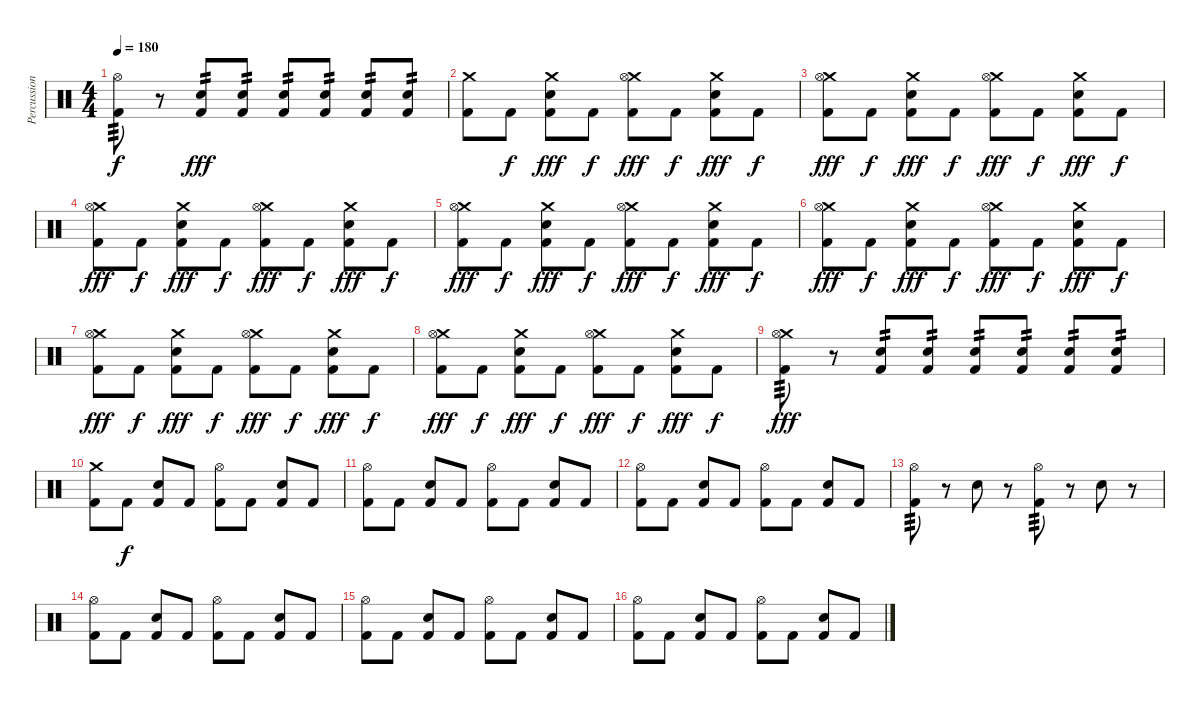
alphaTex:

\track ("Percussion" "Percussion") {instrument percussion}
\staff {score}
\articulation defaults
\ts (4 4)
\tempo 180
\clef neutral
\ks c
("Hi-Hat (open)" "Kick (hit) 2").8{tp 3 dy f} r.8 ("Electric Snare (hit)" "Kick (hit) 2").8{tp 2 dy fff} ("Electric Snare (hit)" "Kick (hit) 2").8{tp 2} ("Electric Snare (hit)" "Kick (hit) 2").8{tp 2} ("Electric Snare (hit)" "Kick (hit) 2").8{tp 2} ("Electric Snare (hit)" "Kick (hit) 2").8{tp 2} ("Electric Snare (hit)" "Kick (hit) 2").8{tp 2} |
("Crash medium (hit)" "Kick (hit) 2").8 "Kick (hit) 2".8{dy f} ("Crash medium (hit)" "Electric Snare (hit)" "Kick (hit) 2").8{dy fff} "Kick (hit) 2".8{dy f} ("Crash medium (hit)" "Hi-Hat (open)" "Kick (hit) 2").8{dy fff} "Kick (hit) 2".8{dy f} ("Crash medium (hit)" "Electric Snare (hit)" "Kick (hit) 2").8{dy fff} "Kick (hit) 2".8{dy f} |
("Crash medium (hit)" "Hi-Hat (open)" "Kick (hit) 2").8{dy fff} "Kick (hit) 2".8{dy f} ("Crash medium (hit)" "Electric Snare (hit)" "Kick (hit) 2").8{dy fff} "Kick (hit) 2".8{dy f} ("Crash medium (hit)" "Hi-Hat (open)" "Kick (hit) 2").8{dy fff} "Kick (hit) 2".8{dy f} ("Crash medium (hit)" "Electric Snare (hit)" "Kick (hit) 2").8{dy fff} "Kick (hit) 2".8{dy f} |
("Crash medium (hit)" "Hi-Hat (open)" "Kick (hit) 2").8{dy fff} "Kick (hit) 2".8{dy f} ("Crash medium (hit)" "Electric Snare (hit)" "Kick (hit) 2").8{dy fff} "Kick (hit) 2".8{dy f} ("Crash medium (hit)" "Hi-Hat (open)" "Kick (hit) 2").8{dy fff} "Kick (hit) 2".8{dy f} ("Crash medium (hit)" "Electric Snare (hit)" "Kick (hit) 2").8{dy fff} "Kick (hit) 2".8{dy f} |
("Crash medium (hit)" "Hi-Hat (open)" "Kick (hit) 2").8{dy fff} "Kick (hit) 2".8{dy f} ("Crash medium (hit)" "Electric Snare (hit)" "Kick (hit) 2").8{dy fff} "Kick (hit) 2".8{dy f} ("Crash medium (hit)" "Hi-Hat (open)" "Kick (hit) 2").8{dy fff} "Kick (hit) 2".8{dy f} ("Crash medium (hit)" "Electric Snare (hit)" "Kick (hit) 2").8{dy fff} "Kick (hit) 2".8{dy f} |
("Crash medium (hit)" "Hi-Hat (open)" "Kick (hit) 2").8{dy fff} "Kick (hit) 2".8{dy f} ("Crash medium (hit)" "Electric Snare (hit)" "Kick (hit) 2").8{dy fff} "Kick (hit) 2".8{dy f} ("Crash medium (hit)" "Hi-Hat (open)" "Kick (hit) 2").8{dy fff} "Kick (hit) 2".8{dy f} ("Crash medium (hit)" "Electric Snare (hit)" "Kick (hit) 2").8{dy fff} "Kick (hit) 2".8{dy f} |
("Crash medium (hit)" "Hi-Hat (open)" "Kick (hit) 2").8{dy fff} "Kick (hit) 2".8{dy f} ("Crash medium (hit)" "Electric Snare (hit)" "Kick (hit) 2").8{dy fff} "Kick (hit) 2".8{dy f} ("Crash medium (hit)" "Hi-Hat (open)" "Kick (hit) 2").8{dy fff} "Kick (hit) 2".8{dy f} ("Crash medium (hit)" "Electric Snare (hit)" "Kick (hit) 2").8{dy fff} "Kick (hit) 2".8{dy f} |
("Crash medium (hit)" "Hi-Hat (open)" "Kick (hit) 2").8{dy fff} "Kick (hit) 2".8{dy f} ("Crash medium (hit)" "Electric Snare (hit)" "Kick (hit) 2").8{dy fff} "Kick (hit) 2".8{dy f} ("Crash medium (hit)" "Hi-Hat (open)" "Kick (hit) 2").8{dy fff} "Kick (hit) 2".8{dy f} ("Crash medium (hit)" "Electric Snare (hit)" "Kick (hit) 2").8{dy fff} "Kick (hit) 2".8{dy f} |
("Crash medium (hit)" "Hi-Hat (open)" "Kick (hit) 2").8{tp 3 dy fff} r.8 ("Electric Snare (hit)" "Kick (hit) 2").8{tp 2} ("Electric Snare (hit)" "Kick (hit) 2").8{tp 2} ("Electric Snare (hit)" "Kick (hit) 2").8{tp 2} ("Electric Snare (hit)" "Kick (hit) 2").8{tp 2} ("Electric Snare (hit)" "Kick (hit) 2").8{tp 2} ("Electric Snare (hit)" "Kick (hit) 2").8{tp 2} |
("Crash medium (hit)" "Kick (hit) 2").8 "Kick (hit) 2".8{dy f} ("Electric Snare (hit)" "Kick (hit) 2").8 "Kick (hit) 2".8 ("Hi-Hat (open)" "Kick (hit) 2").8 "Kick (hit) 2".8 ("Electric Snare (hit)" "Kick (hit) 2").8 "Kick (hit) 2".8 |
("Hi-Hat (open)" "Kick (hit) 2").8 "Kick (hit) 2".8 ("Electric Snare (hit)" "Kick (hit) 2").8 "Kick (hit) 2".8 ("Hi-Hat (open)" "Kick (hit) 2").8 "Kick (hit) 2".8 ("Electric Snare (hit)" "Kick (hit) 2").8 "Kick (hit) 2".8 |
("Hi-Hat (open)" "Kick (hit) 2").8 "Kick (hit) 2".8 ("Electric Snare (hit)" "Kick (hit) 2").8 "Kick (hit) 2".8 ("Hi-Hat (open)" "Kick (hit) 2").8 "Kick (hit) 2".8 ("Electric Snare (hit)" "Kick (hit) 2").8 "Kick (hit) 2".8 |
("Hi-Hat (open)" "Kick (hit) 2").8{tp 3} r.8 "Electric Snare (hit)".8 r.8 ("Hi-Hat (open)" "Kick (hit) 2").8{tp 3} r.8 "Electric Snare (hit)".8 r.8 |
("Hi-Hat (open)" "Kick (hit) 2").8 "Kick (hit) 2".8 ("Electric Snare (hit)" "Kick (hit) 2").8 "Kick (hit) 2".8 ("Hi-Hat (open)" "Kick (hit) 2").8 "Kick (hit) 2".8 ("Electric Snare (hit)" "Kick (hit) 2").8 "Kick (hit) 2".8 |
("Hi-Hat (open)" "Kick (hit) 2").8 "Kick (hit) 2".8 ("Electric Snare (hit)" "Kick (hit) 2").8 "Kick (hit) 2".8 ("Hi-Hat (open)" "Kick (hit) 2").8 "Kick (hit) 2".8 ("Electric Snare (hit)" "Kick (hit) 2").8 "Kick (hit) 2".8 |
("Hi-Hat (open)" "Kick (hit) 2").8 "Kick (hit) 2".8 ("Electric Snare (hit)" "Kick (hit) 2").8 "Kick (hit) 2".8 ("Hi-Hat (open)" "Kick (hit) 2").8 "Kick (hit) 2".8 ("Electric Snare (hit)" "Kick (hit) 2").8 "Kick (hit) 2".8
